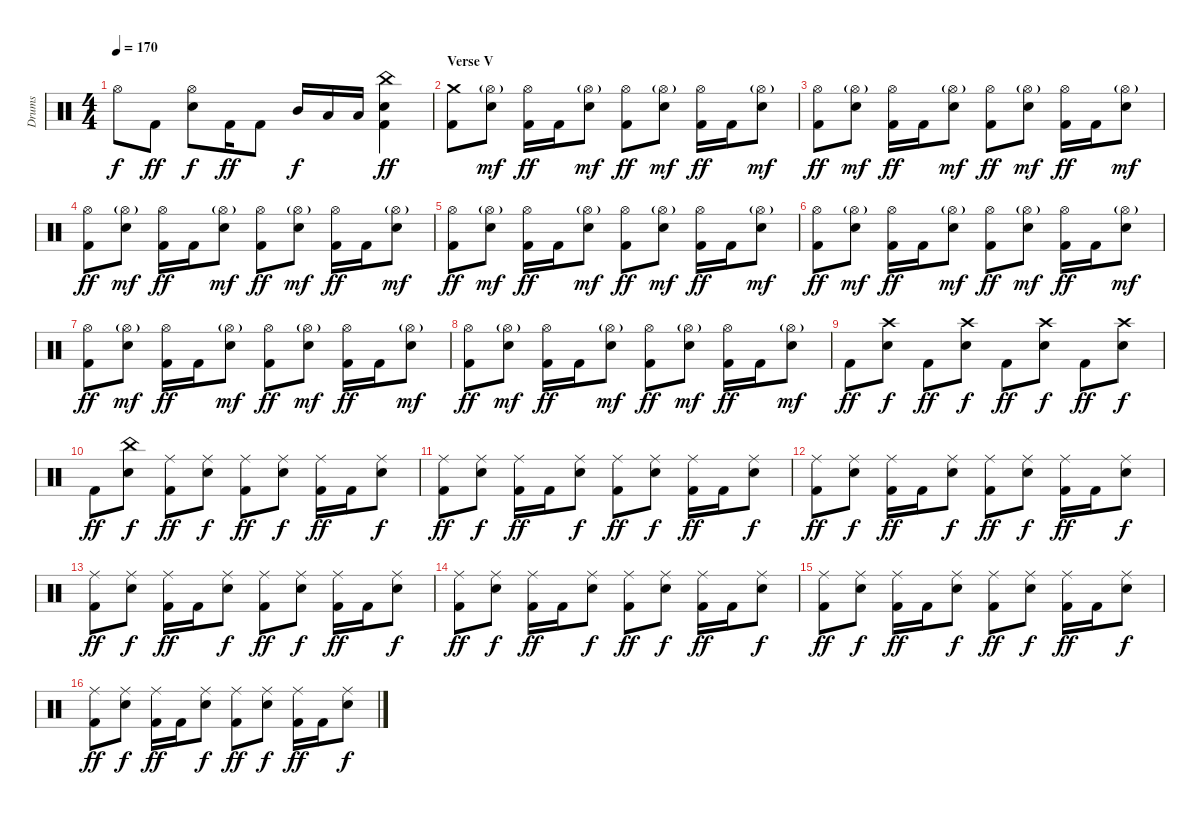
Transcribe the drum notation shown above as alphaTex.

\track ("Drums" "Drums") {instrument percussion}
\staff {score}
\articulation defaults
\ts (4 4)
\tempo 170
\clef neutral
\ks c "Hi-Hat (open)".8{dy f} "Kick (hit) 2".8{dy ff}
("Hi-Hat (open)" "Electric Snare (hit)").8{dy f} "Kick (hit) 2".16{dy ff} "Kick (hit) 2".8 "Mid Tom (hit)".16{dy f} "Low Tom (hit)".16 "Low Tom (hit)".16 ("China (hit)" "Electric Snare (hit)" "Kick (hit) 2").4{dy ff} |
\section ("" "Verse V")
("Crash medium (hit)" "Kick (hit) 2").8 ("Hi-Hat (open)"{g} "Electric Snare (hit)").8{dy mf} ("Hi-Hat (open)" "Kick (hit) 2").16{dy ff} "Kick (hit) 2".16 ("Hi-Hat (open)"{g} "Electric Snare (hit)").8{dy mf} ("Hi-Hat (open)" "Kick (hit) 2").8{dy ff} ("Hi-Hat (open)"{g} "Electric Snare (hit)").8{dy mf} ("Hi-Hat (open)" "Kick (hit) 2").16{dy ff} "Kick (hit) 2".16 ("Hi-Hat (open)"{g} "Electric Snare (hit)").8{dy mf} |
("Hi-Hat (open)" "Kick (hit) 2").8{dy ff} ("Hi-Hat (open)"{g} "Electric Snare (hit)").8{dy mf} ("Hi-Hat (open)" "Kick (hit) 2").16{dy ff} "Kick (hit) 2".16 ("Hi-Hat (open)"{g} "Electric Snare (hit)").8{dy mf} ("Hi-Hat (open)" "Kick (hit) 2").8{dy ff} ("Hi-Hat (open)"{g} "Electric Snare (hit)").8{dy mf} ("Hi-Hat (open)" "Kick (hit) 2").16{dy ff} "Kick (hit) 2".16 ("Hi-Hat (open)"{g} "Electric Snare (hit)").8{dy mf} |
("Hi-Hat (open)" "Kick (hit) 2").8{dy ff} ("Hi-Hat (open)"{g} "Electric Snare (hit)").8{dy mf} ("Hi-Hat (open)" "Kick (hit) 2").16{dy ff} "Kick (hit) 2".16 ("Hi-Hat (open)"{g} "Electric Snare (hit)").8{dy mf} ("Hi-Hat (open)" "Kick (hit) 2").8{dy ff} ("Hi-Hat (open)"{g} "Electric Snare (hit)").8{dy mf} ("Hi-Hat (open)" "Kick (hit) 2").16{dy ff} "Kick (hit) 2".16 ("Hi-Hat (open)"{g} "Electric Snare (hit)").8{dy mf} |
("Hi-Hat (open)" "Kick (hit) 2").8{dy ff} ("Hi-Hat (open)"{g} "Electric Snare (hit)").8{dy mf} ("Hi-Hat (open)" "Kick (hit) 2").16{dy ff} "Kick (hit) 2".16 ("Hi-Hat (open)"{g} "Electric Snare (hit)").8{dy mf} ("Hi-Hat (open)" "Kick (hit) 2").8{dy ff} ("Hi-Hat (open)"{g} "Electric Snare (hit)").8{dy mf} ("Hi-Hat (open)" "Kick (hit) 2").16{dy ff} "Kick (hit) 2".16 ("Hi-Hat (open)"{g} "Electric Snare (hit)").8{dy mf} |
("Hi-Hat (open)" "Kick (hit) 2").8{dy ff} ("Hi-Hat (open)"{g} "Electric Snare (hit)").8{dy mf} ("Hi-Hat (open)" "Kick (hit) 2").16{dy ff} "Kick (hit) 2".16 ("Hi-Hat (open)"{g} "Electric Snare (hit)").8{dy mf} ("Hi-Hat (open)" "Kick (hit) 2").8{dy ff} ("Hi-Hat (open)"{g} "Electric Snare (hit)").8{dy mf} ("Hi-Hat (open)" "Kick (hit) 2").16{dy ff} "Kick (hit) 2".16 ("Hi-Hat (open)"{g} "Electric Snare (hit)").8{dy mf} |
("Hi-Hat (open)" "Kick (hit) 2").8{dy ff} ("Hi-Hat (open)"{g} "Electric Snare (hit)").8{dy mf} ("Hi-Hat (open)" "Kick (hit) 2").16{dy ff} "Kick (hit) 2".16 ("Hi-Hat (open)"{g} "Electric Snare (hit)").8{dy mf} ("Hi-Hat (open)" "Kick (hit) 2").8{dy ff} ("Hi-Hat (open)"{g} "Electric Snare (hit)").8{dy mf} ("Hi-Hat (open)" "Kick (hit) 2").16{dy ff} "Kick (hit) 2".16 ("Hi-Hat (open)"{g} "Electric Snare (hit)").8{dy mf} |
("Hi-Hat (open)" "Kick (hit) 2").8{dy ff} ("Hi-Hat (open)"{g} "Electric Snare (hit)").8{dy mf} ("Hi-Hat (open)" "Kick (hit) 2").16{dy ff} "Kick (hit) 2".16 ("Hi-Hat (open)"{g} "Electric Snare (hit)").8{dy mf} ("Hi-Hat (open)" "Kick (hit) 2").8{dy ff} ("Hi-Hat (open)"{g} "Electric Snare (hit)").8{dy mf} ("Hi-Hat (open)" "Kick (hit) 2").16{dy ff} "Kick (hit) 2".16 ("Hi-Hat (open)"{g} "Electric Snare (hit)").8{dy mf} |
"Kick (hit) 2".8{dy ff} ("Crash high (hit)" "Electric Snare (hit)").8{dy f} "Kick (hit) 2".8{dy ff} ("Crash high (hit)" "Electric Snare (hit)").8{dy f} "Kick (hit) 2".8{dy ff} ("Crash high (hit)" "Electric Snare (hit)").8{dy f} "Kick (hit) 2".8{dy ff} ("Crash high (hit)" "Electric Snare (hit)").8{dy f} |
"Kick (hit) 2".8{dy ff} ("China (hit)" "Electric Snare (hit)").8{dy f} ("Ride (middle)" "Kick (hit) 2").8{dy ff} ("Ride (middle)" "Electric Snare (hit)").8{dy f} ("Ride (middle)" "Kick (hit) 2").8{dy ff} ("Ride (middle)" "Electric Snare (hit)").8{dy f} ("Ride (middle)" "Kick (hit) 2").16{dy ff} "Kick (hit) 2".16 ("Ride (middle)" "Electric Snare (hit)").8{dy f} |
("Ride (middle)" "Kick (hit) 2").8{dy ff} ("Ride (middle)" "Electric Snare (hit)").8{dy f} ("Ride (middle)" "Kick (hit) 2").16{dy ff} "Kick (hit) 2".16 ("Ride (middle)" "Electric Snare (hit)").8{dy f} ("Ride (middle)" "Kick (hit) 2").8{dy ff} ("Ride (middle)" "Electric Snare (hit)").8{dy f} ("Ride (middle)" "Kick (hit) 2").16{dy ff} "Kick (hit) 2".16 ("Ride (middle)" "Electric Snare (hit)").8{dy f} |
("Ride (middle)" "Kick (hit) 2").8{dy ff} ("Ride (middle)" "Electric Snare (hit)").8{dy f} ("Ride (middle)" "Kick (hit) 2").16{dy ff} "Kick (hit) 2".16 ("Ride (middle)" "Electric Snare (hit)").8{dy f} ("Ride (middle)" "Kick (hit) 2").8{dy ff} ("Ride (middle)" "Electric Snare (hit)").8{dy f} ("Ride (middle)" "Kick (hit) 2").16{dy ff} "Kick (hit) 2".16 ("Ride (middle)" "Electric Snare (hit)").8{dy f} |
("Ride (middle)" "Kick (hit) 2").8{dy ff} ("Ride (middle)" "Electric Snare (hit)").8{dy f} ("Ride (middle)" "Kick (hit) 2").16{dy ff} "Kick (hit) 2".16 ("Ride (middle)" "Electric Snare (hit)").8{dy f} ("Ride (middle)" "Kick (hit) 2").8{dy ff} ("Ride (middle)" "Electric Snare (hit)").8{dy f} ("Ride (middle)" "Kick (hit) 2").16{dy ff} "Kick (hit) 2".16 ("Ride (middle)" "Electric Snare (hit)").8{dy f} |
("Ride (middle)" "Kick (hit) 2").8{dy ff} ("Ride (middle)" "Electric Snare (hit)").8{dy f} ("Ride (middle)" "Kick (hit) 2").16{dy ff} "Kick (hit) 2".16 ("Ride (middle)" "Electric Snare (hit)").8{dy f} ("Ride (middle)" "Kick (hit) 2").8{dy ff} ("Ride (middle)" "Electric Snare (hit)").8{dy f} ("Ride (middle)" "Kick (hit) 2").16{dy ff} "Kick (hit) 2".16 ("Ride (middle)" "Electric Snare (hit)").8{dy f} |
("Ride (middle)" "Kick (hit) 2").8{dy ff} ("Ride (middle)" "Electric Snare (hit)").8{dy f} ("Ride (middle)" "Kick (hit) 2").16{dy ff} "Kick (hit) 2".16 ("Ride (middle)" "Electric Snare (hit)").8{dy f} ("Ride (middle)" "Kick (hit) 2").8{dy ff} ("Ride (middle)" "Electric Snare (hit)").8{dy f} ("Ride (middle)" "Kick (hit) 2").16{dy ff} "Kick (hit) 2".16 ("Ride (middle)" "Electric Snare (hit)").8{dy f} |
("Ride (middle)" "Kick (hit) 2").8{dy ff} ("Ride (middle)" "Electric Snare (hit)").8{dy f} ("Ride (middle)" "Kick (hit) 2").16{dy ff} "Kick (hit) 2".16 ("Ride (middle)" "Electric Snare (hit)").8{dy f} ("Ride (middle)" "Kick (hit) 2").8{dy ff} ("Ride (middle)" "Electric Snare (hit)").8{dy f} ("Ride (middle)" "Kick (hit) 2").16{dy ff} "Kick (hit) 2".16 ("Ride (middle)" "Electric Snare (hit)").8{dy f}
